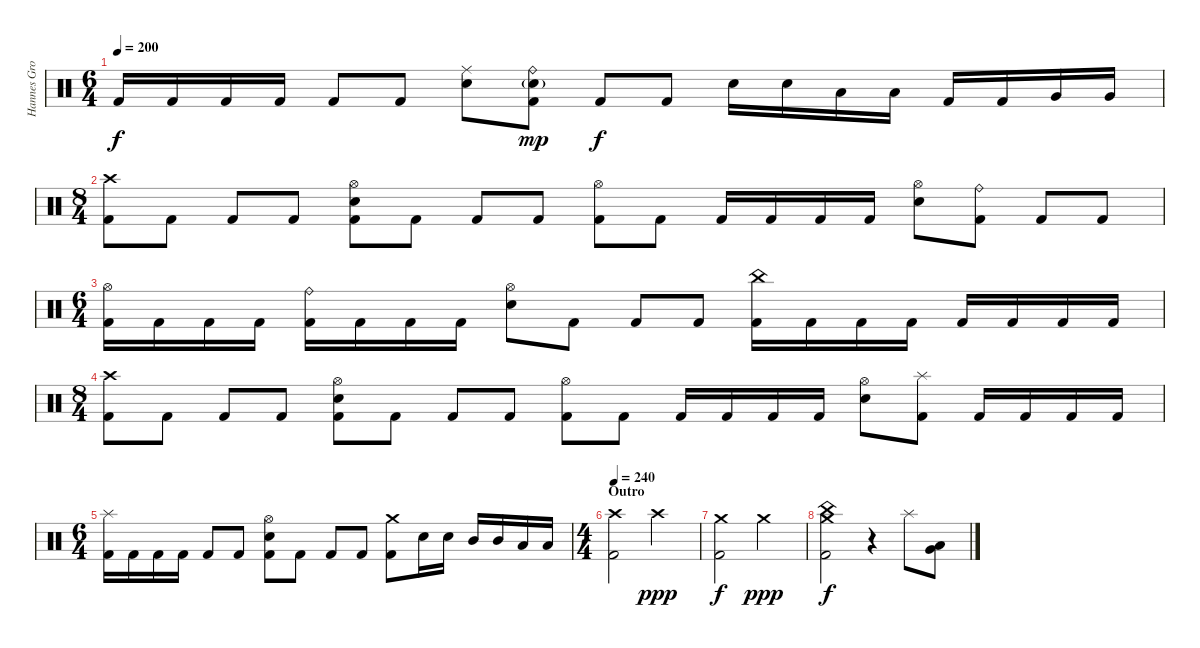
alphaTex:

\track ("Hannes Grossmann" "Hannes Gro") {instrument percussion}
\staff {score}
\articulation defaults
\ts (6 4)
\tempo 200
\clef neutral
\ks c "Kick (hit) 2".16{dy f} "Kick (hit) 2".16 "Kick (hit) 2".16 "Kick (hit) 2".16 "Kick (hit) 2".8 "Kick (hit) 2".8
("Ride (middle)" "Electric Snare (hit)").8 ("Ride (bell)" "Electric Snare (hit)"{g} "Kick (hit) 2").8{dy mp} "Kick (hit) 2".8{dy f} "Kick (hit) 2".8 "Electric Snare (hit)".16 "Electric Snare (hit)".16 "Low Tom (hit)".16 "Low Tom (hit)".16 "Kick (hit) 2".16 "Kick (hit) 2".16 "Very Low Tom (hit)".16 "Very Low Tom (hit)".16 |
\ts (8 4)
("Crash high (hit)" "Kick (hit) 2").8 "Kick (hit) 2".8 "Kick (hit) 2".8 "Kick (hit) 2".8 ("Hi-Hat (open)" "Electric Snare (hit)" "Kick (hit) 2").8 "Kick (hit) 2".8 "Kick (hit) 2".8 "Kick (hit) 2".8 ("Hi-Hat (open)" "Kick (hit) 2").8 "Kick (hit) 2".8 "Kick (hit) 2".16 "Kick (hit) 2".16 "Kick (hit) 2".16 "Kick (hit) 2".16 ("Hi-Hat (open)" "Electric Snare (hit)").8 ("Ride (bell)" "Kick (hit) 2").8 "Kick (hit) 2".8 "Kick (hit) 2".8 |
\ts (6 4)
("Hi-Hat (open)" "Kick (hit) 2").16 "Kick (hit) 2".16 "Kick (hit) 2".16 "Kick (hit) 2".16 ("Ride (bell)" "Kick (hit) 2").16 "Kick (hit) 2".16 "Kick (hit) 2".16 "Kick (hit) 2".16 ("Hi-Hat (open)" "Electric Snare (hit)").8 "Kick (hit) 2".8 "Kick (hit) 2".8 "Kick (hit) 2".8 ("China (hit)" "Kick (hit) 2").16 "Kick (hit) 2".16 "Kick (hit) 2".16 "Kick (hit) 2".16 "Kick (hit) 2".16 "Kick (hit) 2".16 "Kick (hit) 2".16 "Kick (hit) 2".16 |
\ts (8 4)
("Crash high (hit)" "Kick (hit) 2").8 "Kick (hit) 2".8 "Kick (hit) 2".8 "Kick (hit) 2".8 ("Hi-Hat (open)" "Electric Snare (hit)" "Kick (hit) 2").8 "Kick (hit) 2".8 "Kick (hit) 2".8 "Kick (hit) 2".8 ("Hi-Hat (open)" "Kick (hit) 2").8 "Kick (hit) 2".8 "Kick (hit) 2".16 "Kick (hit) 2".16 "Kick (hit) 2".16 "Kick (hit) 2".16 ("Hi-Hat (open)" "Electric Snare (hit)").8 ("Splash (hit)" "Kick (hit) 2").8 "Kick (hit) 2".16 "Kick (hit) 2".16 "Kick (hit) 2".16 "Kick (hit) 2".16 |
\ts (6 4)
("Splash (hit)" "Kick (hit) 2").16 "Kick (hit) 2".16 "Kick (hit) 2".16 "Kick (hit) 2".16 "Kick (hit) 2".8 "Kick (hit) 2".8 ("Hi-Hat (open)" "Electric Snare (hit)" "Kick (hit) 2").8 "Kick (hit) 2".8 "Kick (hit) 2".8 "Kick (hit) 2".8 ("Crash medium (hit)" "Kick (hit) 2").8 "Electric Snare (hit)".16 "Electric Snare (hit)".16 "Mid Tom (hit)".16 "Mid Tom (hit)".16 "Low Tom (hit)".16 "Low Tom (hit)".16 |
\ts (4 4)
\section ("" "Outro")
\tempo 240
("Crash high (hit)" "Kick (hit) 2").2 "Crash high (hit)".2{dy ppp} |
("Crash medium (hit)" "Kick (hit) 2").2{dy f} "Crash medium (hit)".2{dy ppp} |
("Crash medium (hit)" "China (hit)" "Kick (hit) 2").2{dy f} r.4 "Splash (hit)".8 ("Very Low Tom (hit)" "Low Floor Tom (hit)").8
